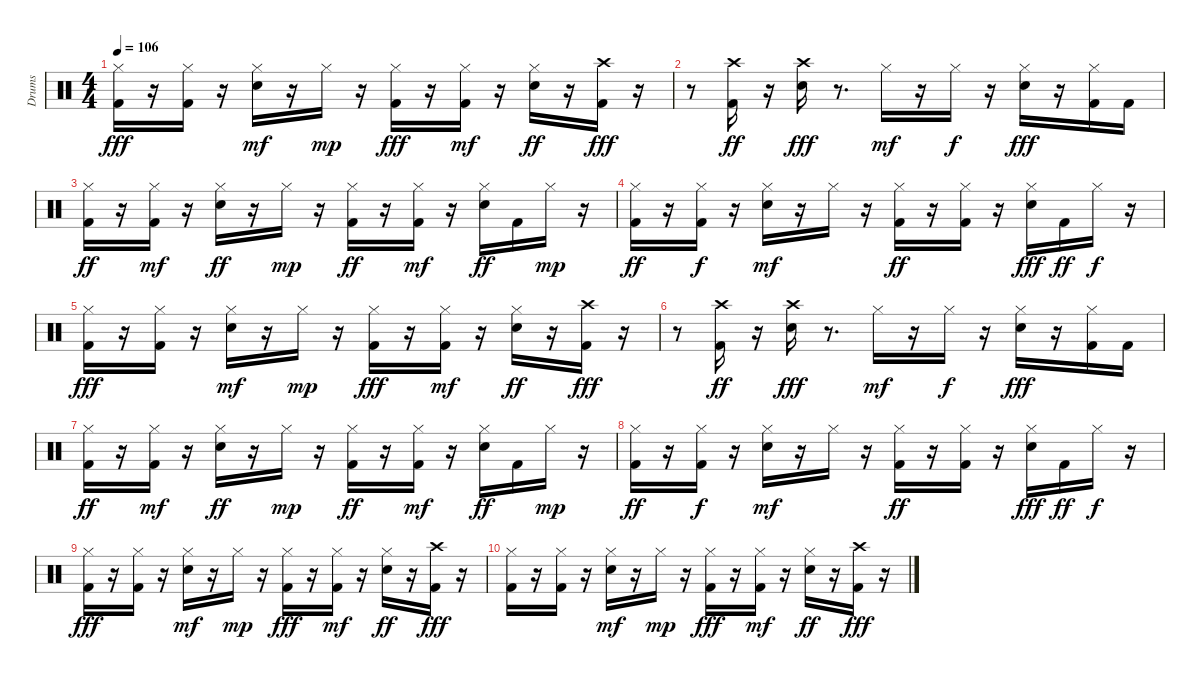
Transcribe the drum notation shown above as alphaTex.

\track ("Drums" "Drums") {instrument percussion}
\staff {score}
\articulation defaults
\ts (4 4)
\tempo 106
\clef neutral
\ks c
("Hi-Hat (closed)" "Kick (hit) 2").16{dy fff} r.16 ("Hi-Hat (closed)" "Kick (hit) 2").16 r.16 ("Snare (hit) 2" "Hi-Hat (closed)").16{dy mf} r.16 "Hi-Hat (closed)".16{dy mp} r.16 ("Hi-Hat (closed)" "Kick (hit) 2").16{dy fff} r.16 ("Hi-Hat (closed)" "Kick (hit) 2").16{dy mf} r.16 ("Hi-Hat (closed)" "Snare (hit) 2").16{dy ff} r.16 ("Crash high (hit)" "Kick (hit) 2").16{dy fff} r.16 |
r.8 ("Crash high (hit)" "Kick (hit) 2").16{dy ff} r.16 ("Crash high (hit)" "Snare (hit) 2").16{dy fff} r.8{d} "Hi-Hat (closed)".16{dy mf} r.16 "Hi-Hat (closed)".16{dy f} r.16 ("Snare (hit) 2" "Hi-Hat (closed)").16{dy fff} r.16 ("Kick (hit) 2" "Hi-Hat (closed)").16 "Kick (hit) 2".16 |
("Kick (hit) 2" "Hi-Hat (closed)").16{dy ff} r.16 ("Kick (hit) 2" "Hi-Hat (closed)").16{dy mf} r.16 ("Hi-Hat (closed)" "Snare (hit) 2").16{dy ff} r.16 "Hi-Hat (closed)".16{dy mp} r.16 ("Hi-Hat (closed)" "Kick (hit) 2").16{dy ff} r.16 ("Hi-Hat (closed)" "Kick (hit) 2").16{dy mf} r.16 ("Hi-Hat (closed)" "Snare (hit) 2").16{dy ff} "Kick (hit) 2".16 "Hi-Hat (closed)".16{dy mp} r.16 |
("Kick (hit) 2" "Hi-Hat (closed)").16{dy ff} r.16 ("Kick (hit) 2" "Hi-Hat (closed)").16{dy f} r.16 ("Snare (hit) 2" "Hi-Hat (closed)").16{dy mf} r.16 "Hi-Hat (closed)".16 r.16 ("Hi-Hat (closed)" "Kick (hit) 2").16{dy ff} r.16 ("Hi-Hat (closed)" "Kick (hit) 2").16 r.16 ("Snare (hit) 2" "Hi-Hat (closed)").16{dy fff} "Kick (hit) 2".16{dy ff} "Hi-Hat (closed)".16{dy f} r.16 |
("Hi-Hat (closed)" "Kick (hit) 2").16{dy fff volume 9} r.16 ("Hi-Hat (closed)" "Kick (hit) 2").16 r.16 ("Snare (hit) 2" "Hi-Hat (closed)").16{dy mf} r.16 "Hi-Hat (closed)".16{dy mp} r.16 ("Hi-Hat (closed)" "Kick (hit) 2").16{dy fff} r.16 ("Hi-Hat (closed)" "Kick (hit) 2").16{dy mf} r.16 ("Hi-Hat (closed)" "Snare (hit) 2").16{dy ff} r.16 ("Crash high (hit)" "Kick (hit) 2").16{dy fff} r.16 |
r.8 ("Crash high (hit)" "Kick (hit) 2").16{dy ff} r.16 ("Crash high (hit)" "Snare (hit) 2").16{dy fff} r.8{d} "Hi-Hat (closed)".16{dy mf} r.16 "Hi-Hat (closed)".16{dy f} r.16 ("Snare (hit) 2" "Hi-Hat (closed)").16{dy fff} r.16 ("Kick (hit) 2" "Hi-Hat (closed)").16 "Kick (hit) 2".16 |
("Kick (hit) 2" "Hi-Hat (closed)").16{dy ff} r.16 ("Kick (hit) 2" "Hi-Hat (closed)").16{dy mf} r.16 ("Hi-Hat (closed)" "Snare (hit) 2").16{dy ff} r.16 "Hi-Hat (closed)".16{dy mp} r.16 ("Hi-Hat (closed)" "Kick (hit) 2").16{dy ff} r.16 ("Hi-Hat (closed)" "Kick (hit) 2").16{dy mf} r.16 ("Hi-Hat (closed)" "Snare (hit) 2").16{dy ff} "Kick (hit) 2".16 "Hi-Hat (closed)".16{dy mp} r.16 |
("Kick (hit) 2" "Hi-Hat (closed)").16{dy ff volume 3} r.16 ("Kick (hit) 2" "Hi-Hat (closed)").16{dy f} r.16 ("Snare (hit) 2" "Hi-Hat (closed)").16{dy mf} r.16 "Hi-Hat (closed)".16 r.16 ("Hi-Hat (closed)" "Kick (hit) 2").16{dy ff} r.16 ("Hi-Hat (closed)" "Kick (hit) 2").16 r.16 ("Snare (hit) 2" "Hi-Hat (closed)").16{dy fff} "Kick (hit) 2".16{dy ff} "Hi-Hat (closed)".16{dy f} r.16 |
("Hi-Hat (closed)" "Kick (hit) 2").16{dy fff volume 0} r.16 ("Hi-Hat (closed)" "Kick (hit) 2").16 r.16 ("Snare (hit) 2" "Hi-Hat (closed)").16{dy mf} r.16 "Hi-Hat (closed)".16{dy mp} r.16 ("Hi-Hat (closed)" "Kick (hit) 2").16{dy fff} r.16 ("Hi-Hat (closed)" "Kick (hit) 2").16{dy mf} r.16 ("Hi-Hat (closed)" "Snare (hit) 2").16{dy ff} r.16 ("Crash high (hit)" "Kick (hit) 2").16{dy fff} r.16 |
("Hi-Hat (closed)" "Kick (hit) 2").16 r.16 ("Hi-Hat (closed)" "Kick (hit) 2").16 r.16 ("Snare (hit) 2" "Hi-Hat (closed)").16{dy mf} r.16 "Hi-Hat (closed)".16{dy mp} r.16 ("Hi-Hat (closed)" "Kick (hit) 2").16{dy fff} r.16 ("Hi-Hat (closed)" "Kick (hit) 2").16{dy mf} r.16 ("Hi-Hat (closed)" "Snare (hit) 2").16{dy ff} r.16 ("Crash high (hit)" "Kick (hit) 2").16{dy fff} r.16
